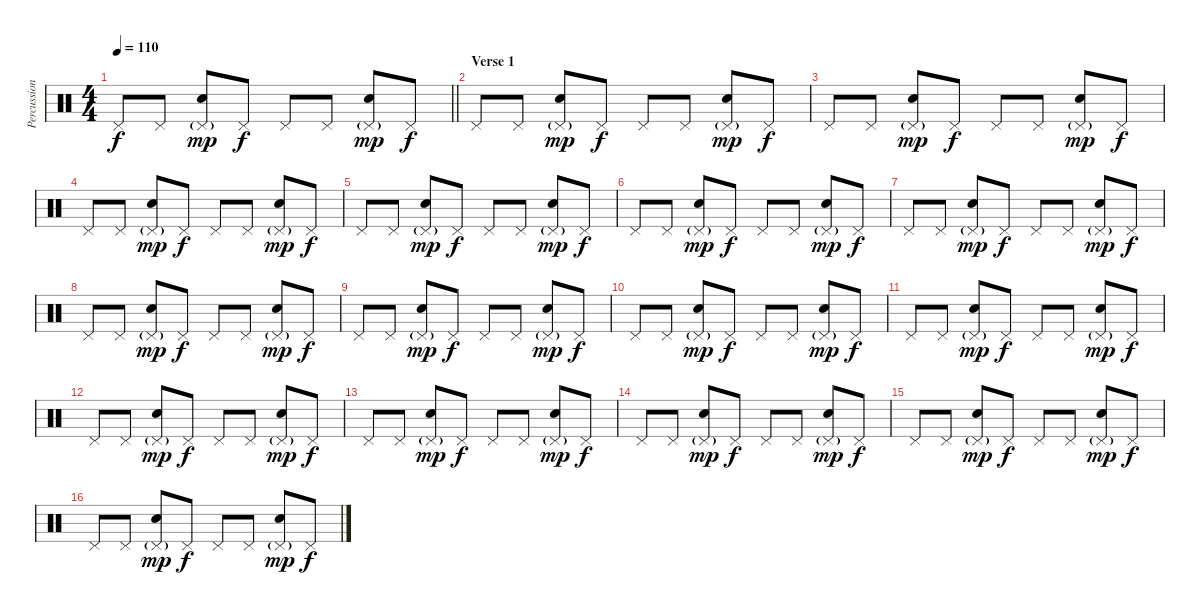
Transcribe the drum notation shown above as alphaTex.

\track ("Percussion" "Percussion") {instrument percussion}
\staff {score}
\articulation defaults
\ts (4 4)
\tempo 110
\clef neutral
\barLineRight lightlight
\ks c "Pedal Hi-Hat (hit)".8{dy f} "Pedal Hi-Hat (hit)".8
("Pedal Hi-Hat (hit)"{g} "Electric Snare (hit)").8{dy mp} "Pedal Hi-Hat (hit)".8{dy f} "Pedal Hi-Hat (hit)".8 "Pedal Hi-Hat (hit)".8 ("Pedal Hi-Hat (hit)"{g} "Electric Snare (hit)").8{dy mp} "Pedal Hi-Hat (hit)".8{dy f} |
\section ("" "Verse 1")
"Pedal Hi-Hat (hit)".8 "Pedal Hi-Hat (hit)".8 ("Pedal Hi-Hat (hit)"{g} "Electric Snare (hit)").8{dy mp} "Pedal Hi-Hat (hit)".8{dy f} "Pedal Hi-Hat (hit)".8 "Pedal Hi-Hat (hit)".8 ("Pedal Hi-Hat (hit)"{g} "Electric Snare (hit)").8{dy mp} "Pedal Hi-Hat (hit)".8{dy f} |
"Pedal Hi-Hat (hit)".8 "Pedal Hi-Hat (hit)".8 ("Pedal Hi-Hat (hit)"{g} "Electric Snare (hit)").8{dy mp} "Pedal Hi-Hat (hit)".8{dy f} "Pedal Hi-Hat (hit)".8 "Pedal Hi-Hat (hit)".8 ("Pedal Hi-Hat (hit)"{g} "Electric Snare (hit)").8{dy mp} "Pedal Hi-Hat (hit)".8{dy f} |
"Pedal Hi-Hat (hit)".8 "Pedal Hi-Hat (hit)".8 ("Pedal Hi-Hat (hit)"{g} "Electric Snare (hit)").8{dy mp} "Pedal Hi-Hat (hit)".8{dy f} "Pedal Hi-Hat (hit)".8 "Pedal Hi-Hat (hit)".8 ("Pedal Hi-Hat (hit)"{g} "Electric Snare (hit)").8{dy mp} "Pedal Hi-Hat (hit)".8{dy f} |
"Pedal Hi-Hat (hit)".8 "Pedal Hi-Hat (hit)".8 ("Pedal Hi-Hat (hit)"{g} "Electric Snare (hit)").8{dy mp} "Pedal Hi-Hat (hit)".8{dy f} "Pedal Hi-Hat (hit)".8 "Pedal Hi-Hat (hit)".8 ("Pedal Hi-Hat (hit)"{g} "Electric Snare (hit)").8{dy mp} "Pedal Hi-Hat (hit)".8{dy f} |
"Pedal Hi-Hat (hit)".8 "Pedal Hi-Hat (hit)".8 ("Pedal Hi-Hat (hit)"{g} "Electric Snare (hit)").8{dy mp} "Pedal Hi-Hat (hit)".8{dy f} "Pedal Hi-Hat (hit)".8 "Pedal Hi-Hat (hit)".8 ("Pedal Hi-Hat (hit)"{g} "Electric Snare (hit)").8{dy mp} "Pedal Hi-Hat (hit)".8{dy f} |
"Pedal Hi-Hat (hit)".8 "Pedal Hi-Hat (hit)".8 ("Pedal Hi-Hat (hit)"{g} "Electric Snare (hit)").8{dy mp} "Pedal Hi-Hat (hit)".8{dy f} "Pedal Hi-Hat (hit)".8 "Pedal Hi-Hat (hit)".8 ("Pedal Hi-Hat (hit)"{g} "Electric Snare (hit)").8{dy mp} "Pedal Hi-Hat (hit)".8{dy f} |
"Pedal Hi-Hat (hit)".8 "Pedal Hi-Hat (hit)".8 ("Pedal Hi-Hat (hit)"{g} "Electric Snare (hit)").8{dy mp} "Pedal Hi-Hat (hit)".8{dy f} "Pedal Hi-Hat (hit)".8 "Pedal Hi-Hat (hit)".8 ("Pedal Hi-Hat (hit)"{g} "Electric Snare (hit)").8{dy mp} "Pedal Hi-Hat (hit)".8{dy f} |
"Pedal Hi-Hat (hit)".8 "Pedal Hi-Hat (hit)".8 ("Pedal Hi-Hat (hit)"{g} "Electric Snare (hit)").8{dy mp} "Pedal Hi-Hat (hit)".8{dy f} "Pedal Hi-Hat (hit)".8 "Pedal Hi-Hat (hit)".8 ("Pedal Hi-Hat (hit)"{g} "Electric Snare (hit)").8{dy mp} "Pedal Hi-Hat (hit)".8{dy f} |
"Pedal Hi-Hat (hit)".8 "Pedal Hi-Hat (hit)".8 ("Pedal Hi-Hat (hit)"{g} "Electric Snare (hit)").8{dy mp} "Pedal Hi-Hat (hit)".8{dy f} "Pedal Hi-Hat (hit)".8 "Pedal Hi-Hat (hit)".8 ("Pedal Hi-Hat (hit)"{g} "Electric Snare (hit)").8{dy mp} "Pedal Hi-Hat (hit)".8{dy f} |
"Pedal Hi-Hat (hit)".8 "Pedal Hi-Hat (hit)".8 ("Pedal Hi-Hat (hit)"{g} "Electric Snare (hit)").8{dy mp} "Pedal Hi-Hat (hit)".8{dy f} "Pedal Hi-Hat (hit)".8 "Pedal Hi-Hat (hit)".8 ("Pedal Hi-Hat (hit)"{g} "Electric Snare (hit)").8{dy mp} "Pedal Hi-Hat (hit)".8{dy f} |
"Pedal Hi-Hat (hit)".8 "Pedal Hi-Hat (hit)".8 ("Pedal Hi-Hat (hit)"{g} "Electric Snare (hit)").8{dy mp} "Pedal Hi-Hat (hit)".8{dy f} "Pedal Hi-Hat (hit)".8 "Pedal Hi-Hat (hit)".8 ("Pedal Hi-Hat (hit)"{g} "Electric Snare (hit)").8{dy mp} "Pedal Hi-Hat (hit)".8{dy f} |
"Pedal Hi-Hat (hit)".8 "Pedal Hi-Hat (hit)".8 ("Pedal Hi-Hat (hit)"{g} "Electric Snare (hit)").8{dy mp} "Pedal Hi-Hat (hit)".8{dy f} "Pedal Hi-Hat (hit)".8 "Pedal Hi-Hat (hit)".8 ("Pedal Hi-Hat (hit)"{g} "Electric Snare (hit)").8{dy mp} "Pedal Hi-Hat (hit)".8{dy f} |
"Pedal Hi-Hat (hit)".8 "Pedal Hi-Hat (hit)".8 ("Pedal Hi-Hat (hit)"{g} "Electric Snare (hit)").8{dy mp} "Pedal Hi-Hat (hit)".8{dy f} "Pedal Hi-Hat (hit)".8 "Pedal Hi-Hat (hit)".8 ("Pedal Hi-Hat (hit)"{g} "Electric Snare (hit)").8{dy mp} "Pedal Hi-Hat (hit)".8{dy f} |
"Pedal Hi-Hat (hit)".8 "Pedal Hi-Hat (hit)".8 ("Pedal Hi-Hat (hit)"{g} "Electric Snare (hit)").8{dy mp} "Pedal Hi-Hat (hit)".8{dy f} "Pedal Hi-Hat (hit)".8 "Pedal Hi-Hat (hit)".8 ("Pedal Hi-Hat (hit)"{g} "Electric Snare (hit)").8{dy mp} "Pedal Hi-Hat (hit)".8{dy f} |
"Pedal Hi-Hat (hit)".8 "Pedal Hi-Hat (hit)".8 ("Pedal Hi-Hat (hit)"{g} "Electric Snare (hit)").8{dy mp} "Pedal Hi-Hat (hit)".8{dy f} "Pedal Hi-Hat (hit)".8 "Pedal Hi-Hat (hit)".8 ("Pedal Hi-Hat (hit)"{g} "Electric Snare (hit)").8{dy mp} "Pedal Hi-Hat (hit)".8{dy f}
